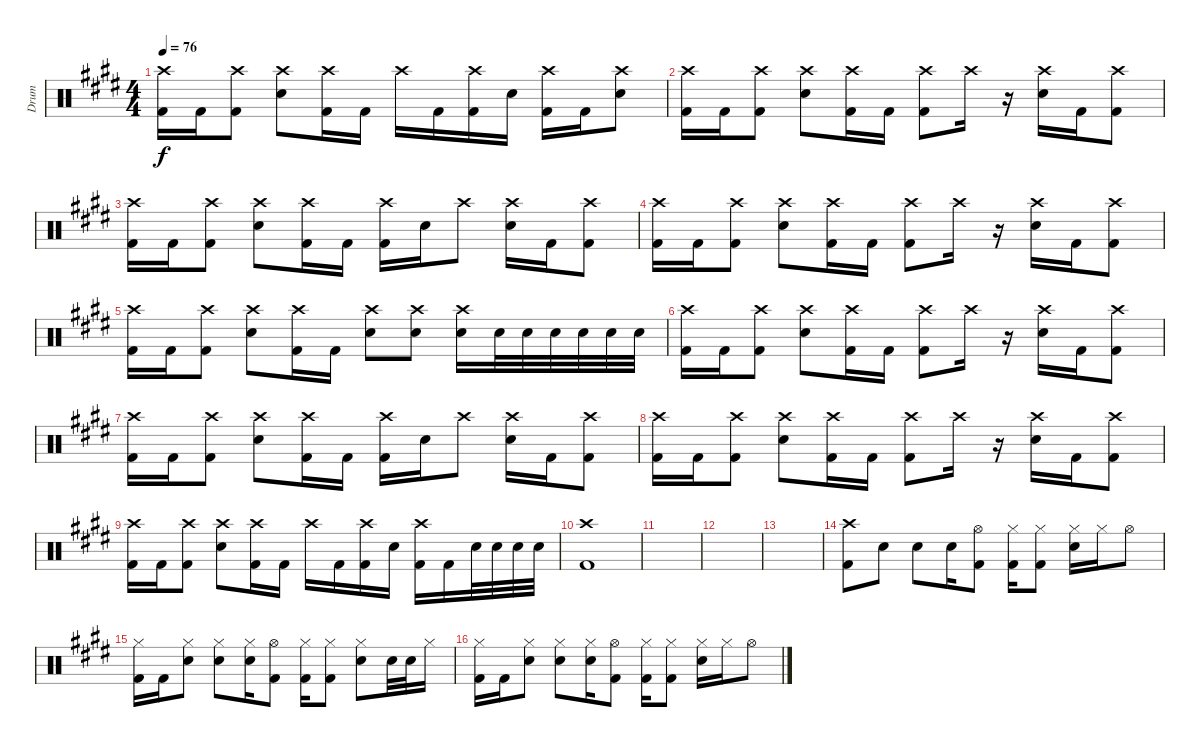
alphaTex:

\track ("Drum" "Drum") {instrument percussion}
\staff {score}
\articulation defaults
\ts (4 4)
\tempo 76
\clef neutral
\ks e
("Crash high (hit)" "Kick (hit) 2").16{dy f volume 11} "Kick (hit) 2".16 ("Crash high (hit)" "Kick (hit) 2").8 ("Crash high (hit)" "Electric Snare (hit)").8 ("Crash high (hit)" "Kick (hit) 2").16 "Kick (hit) 2".16 "Crash high (hit)".16 "Kick (hit) 2".16 ("Crash high (hit)" "Kick (hit) 2").16 "Electric Snare (hit)".16 ("Crash high (hit)" "Kick (hit) 2").16 "Kick (hit) 2".16 ("Crash high (hit)" "Electric Snare (hit)").8 |
("Crash high (hit)" "Kick (hit) 2").16{volume 11} "Kick (hit) 2".16 ("Crash high (hit)" "Kick (hit) 2").8 ("Crash high (hit)" "Electric Snare (hit)").8 ("Crash high (hit)" "Kick (hit) 2").16 "Kick (hit) 2".16 ("Crash high (hit)" "Kick (hit) 2").8 "Crash high (hit)".16 r.16 ("Crash high (hit)" "Electric Snare (hit)").16 "Kick (hit) 2".16 ("Crash high (hit)" "Kick (hit) 2").8 |
("Crash high (hit)" "Kick (hit) 2").16 "Kick (hit) 2".16 ("Crash high (hit)" "Kick (hit) 2").8 ("Crash high (hit)" "Electric Snare (hit)").8 ("Crash high (hit)" "Kick (hit) 2").16 "Kick (hit) 2".16 ("Crash high (hit)" "Kick (hit) 2").16 "Electric Snare (hit)".16 "Crash high (hit)".8 ("Crash high (hit)" "Electric Snare (hit)").16 "Kick (hit) 2".16 ("Crash high (hit)" "Kick (hit) 2").8 |
("Crash high (hit)" "Kick (hit) 2").16{volume 11} "Kick (hit) 2".16 ("Crash high (hit)" "Kick (hit) 2").8 ("Crash high (hit)" "Electric Snare (hit)").8 ("Crash high (hit)" "Kick (hit) 2").16 "Kick (hit) 2".16 ("Crash high (hit)" "Kick (hit) 2").8 "Crash high (hit)".16 r.16 ("Crash high (hit)" "Electric Snare (hit)").16 "Kick (hit) 2".16 ("Crash high (hit)" "Kick (hit) 2").8 |
("Crash high (hit)" "Kick (hit) 2").16{volume 11} "Kick (hit) 2".16 ("Crash high (hit)" "Kick (hit) 2").8 ("Crash high (hit)" "Electric Snare (hit)").8 ("Crash high (hit)" "Kick (hit) 2").16 "Kick (hit) 2".16 ("Crash high (hit)" "Electric Snare (hit)").8 ("Crash high (hit)" "Electric Snare (hit)").8 ("Crash high (hit)" "Electric Snare (hit)").16 "Electric Snare (hit)".32 "Electric Snare (hit)".32 "Electric Snare (hit)".32 "Electric Snare (hit)".32 "Electric Snare (hit)".32 "Electric Snare (hit)".32 |
("Crash high (hit)" "Kick (hit) 2").16{volume 11} "Kick (hit) 2".16 ("Crash high (hit)" "Kick (hit) 2").8 ("Crash high (hit)" "Electric Snare (hit)").8 ("Crash high (hit)" "Kick (hit) 2").16 "Kick (hit) 2".16 ("Crash high (hit)" "Kick (hit) 2").8 "Crash high (hit)".16 r.16 ("Crash high (hit)" "Electric Snare (hit)").16 "Kick (hit) 2".16 ("Crash high (hit)" "Kick (hit) 2").8 |
("Crash high (hit)" "Kick (hit) 2").16 "Kick (hit) 2".16 ("Crash high (hit)" "Kick (hit) 2").8 ("Crash high (hit)" "Electric Snare (hit)").8 ("Crash high (hit)" "Kick (hit) 2").16 "Kick (hit) 2".16 ("Crash high (hit)" "Kick (hit) 2").16 "Electric Snare (hit)".16 "Crash high (hit)".8 ("Crash high (hit)" "Electric Snare (hit)").16 "Kick (hit) 2".16 ("Crash high (hit)" "Kick (hit) 2").8 |
("Crash high (hit)" "Kick (hit) 2").16{volume 11} "Kick (hit) 2".16 ("Crash high (hit)" "Kick (hit) 2").8 ("Crash high (hit)" "Electric Snare (hit)").8 ("Crash high (hit)" "Kick (hit) 2").16 "Kick (hit) 2".16 ("Crash high (hit)" "Kick (hit) 2").8 "Crash high (hit)".16 r.16 ("Crash high (hit)" "Electric Snare (hit)").16 "Kick (hit) 2".16 ("Crash high (hit)" "Kick (hit) 2").8 |
("Crash high (hit)" "Kick (hit) 2").16{volume 11} "Kick (hit) 2".16 ("Crash high (hit)" "Kick (hit) 2").8 ("Crash high (hit)" "Electric Snare (hit)").8 ("Crash high (hit)" "Kick (hit) 2").16 "Kick (hit) 2".16 "Crash high (hit)".16 "Kick (hit) 2".16 ("Crash high (hit)" "Kick (hit) 2").16 "Electric Snare (hit)".16 ("Crash high (hit)" "Kick (hit) 2").16 "Kick (hit) 2".16 "Electric Snare (hit)".32 "Electric Snare (hit)".32 "Electric Snare (hit)".32 "Electric Snare (hit)".32 |
("Crash high (hit)" "Kick (hit) 2").1 |
|
|
|
("Crash high (hit)" "Kick (hit) 2").8 "Electric Snare (hit)".8 "Electric Snare (hit)".8 "Electric Snare (hit)".16 ("Hi-Hat (open)" "Kick (hit) 2").8 ("Hi-Hat (closed)" "Kick (hit) 2").16 ("Hi-Hat (closed)" "Kick (hit) 2").8 ("Hi-Hat (closed)" "Electric Snare (hit)").16 "Hi-Hat (closed)".16 "Hi-Hat (open)".8 |
("Hi-Hat (closed)" "Kick (hit) 2").16 "Kick (hit) 2".16 ("Hi-Hat (closed)" "Electric Snare (hit)").8 ("Hi-Hat (closed)" "Electric Snare (hit)").8 ("Hi-Hat (closed)" "Electric Snare (hit)").16 ("Hi-Hat (open)" "Kick (hit) 2").8 ("Hi-Hat (closed)" "Kick (hit) 2").16 ("Hi-Hat (closed)" "Kick (hit) 2").8 ("Hi-Hat (closed)" "Electric Snare (hit)").8 "Electric Snare (hit)".32 "Electric Snare (hit)".32 "Hi-Hat (closed)".16 |
("Hi-Hat (closed)" "Kick (hit) 2").16 "Kick (hit) 2".16 ("Hi-Hat (closed)" "Electric Snare (hit)").8 ("Hi-Hat (closed)" "Electric Snare (hit)").8 ("Hi-Hat (closed)" "Electric Snare (hit)").16 ("Hi-Hat (open)" "Kick (hit) 2").8 ("Hi-Hat (closed)" "Kick (hit) 2").16 ("Hi-Hat (closed)" "Kick (hit) 2").8 ("Hi-Hat (closed)" "Electric Snare (hit)").16 "Hi-Hat (closed)".16 "Hi-Hat (open)".8
